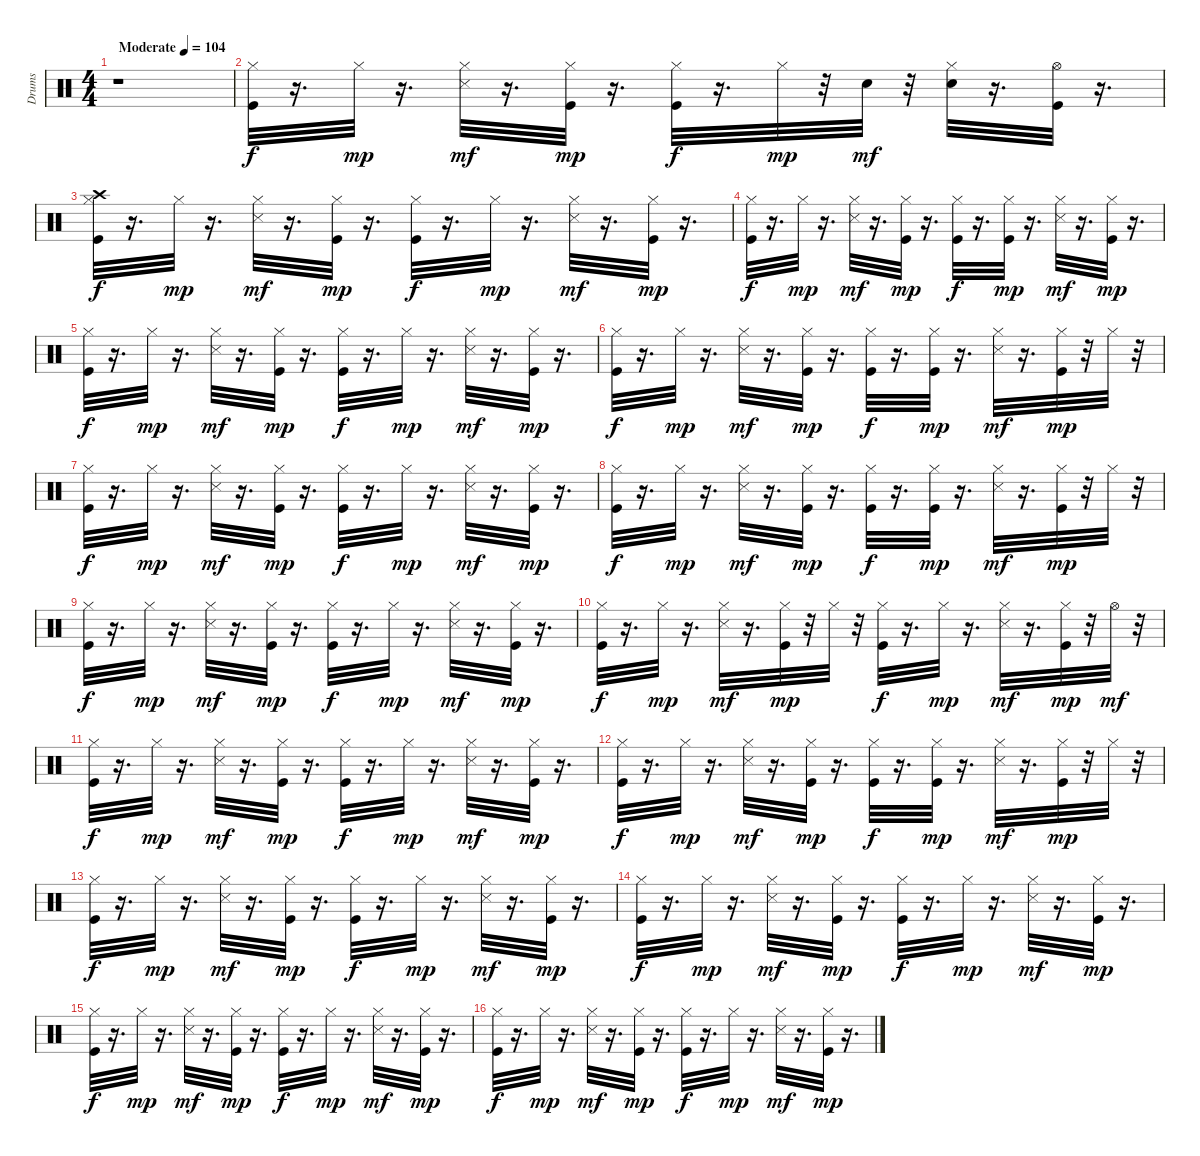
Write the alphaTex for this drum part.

\track ("Drums" "Drums") {instrument percussion}
\staff {score}
\articulation defaults
\ts (4 4)
\tempo (104 "Moderate")
\clef neutral
\ks c
r.1{dy f} |
("Kick (hit)" "Hi-Hat (closed)").32 r.16{d} "Hi-Hat (closed)".32{dy mp} r.16{d} ("Hi-Hat (closed)" "Snare (side stick) 3").32{dy mf} r.16{d} ("Kick (hit)" "Hi-Hat (closed)").32{dy mp} r.16{d} ("Kick (hit)" "Hi-Hat (closed)").32{dy f} r.16{d} "Hi-Hat (closed)".32{dy mp} r.32 "Snare (hit) 2".32{dy mf} r.32 ("Snare (hit) 2" "Hi-Hat (closed)").32 r.16{d} ("Kick (hit)" "Hi-Hat (open)").32 r.16{d} |
("Kick (hit)" "Hi-Hat (closed)" "Crash high (hit)").32{dy f} r.16{d} "Hi-Hat (closed)".32{dy mp} r.16{d} ("Hi-Hat (closed)" "Snare (side stick) 3").32{dy mf} r.16{d} ("Kick (hit)" "Hi-Hat (closed)").32{dy mp} r.16{d} ("Kick (hit)" "Hi-Hat (closed)").32{dy f} r.16{d} "Hi-Hat (closed)".32{dy mp} r.16{d} ("Hi-Hat (closed)" "Snare (side stick) 3").32{dy mf} r.16{d} ("Kick (hit)" "Hi-Hat (closed)").32{dy mp} r.16{d} |
("Kick (hit)" "Hi-Hat (closed)").32{dy f} r.16{d} "Hi-Hat (closed)".32{dy mp} r.16{d} ("Hi-Hat (closed)" "Snare (side stick) 3").32{dy mf} r.16{d} ("Kick (hit)" "Hi-Hat (closed)").32{dy mp} r.16{d} ("Kick (hit)" "Hi-Hat (closed)").32{dy f} r.16{d} ("Kick (hit)" "Hi-Hat (closed)").32{dy mp} r.16{d} ("Hi-Hat (closed)" "Snare (side stick) 3").32{dy mf} r.16{d} ("Kick (hit)" "Hi-Hat (closed)").32{dy mp} r.16{d} |
("Kick (hit)" "Hi-Hat (closed)").32{dy f} r.16{d} "Hi-Hat (closed)".32{dy mp} r.16{d} ("Hi-Hat (closed)" "Snare (side stick) 3").32{dy mf} r.16{d} ("Kick (hit)" "Hi-Hat (closed)").32{dy mp} r.16{d} ("Kick (hit)" "Hi-Hat (closed)").32{dy f} r.16{d} "Hi-Hat (closed)".32{dy mp} r.16{d} ("Hi-Hat (closed)" "Snare (side stick) 3").32{dy mf} r.16{d} ("Kick (hit)" "Hi-Hat (closed)").32{dy mp} r.16{d} |
("Kick (hit)" "Hi-Hat (closed)").32{dy f} r.16{d} "Hi-Hat (closed)".32{dy mp} r.16{d} ("Hi-Hat (closed)" "Snare (side stick) 3").32{dy mf} r.16{d} ("Kick (hit)" "Hi-Hat (closed)").32{dy mp} r.16{d} ("Kick (hit)" "Hi-Hat (closed)").32{dy f} r.16{d} ("Kick (hit)" "Hi-Hat (closed)").32{dy mp} r.16{d} ("Hi-Hat (closed)" "Snare (side stick) 3").32{dy mf} r.16{d} ("Kick (hit)" "Hi-Hat (closed)").32{dy mp} r.32 "Hi-Hat (closed)".32 r.32 |
("Kick (hit)" "Hi-Hat (closed)").32{dy f} r.16{d} "Hi-Hat (closed)".32{dy mp} r.16{d} ("Hi-Hat (closed)" "Snare (side stick) 3").32{dy mf} r.16{d} ("Kick (hit)" "Hi-Hat (closed)").32{dy mp} r.16{d} ("Kick (hit)" "Hi-Hat (closed)").32{dy f} r.16{d} "Hi-Hat (closed)".32{dy mp} r.16{d} ("Hi-Hat (closed)" "Snare (side stick) 3").32{dy mf} r.16{d} ("Kick (hit)" "Hi-Hat (closed)").32{dy mp} r.16{d} |
("Kick (hit)" "Hi-Hat (closed)").32{dy f} r.16{d} "Hi-Hat (closed)".32{dy mp} r.16{d} ("Hi-Hat (closed)" "Snare (side stick) 3").32{dy mf} r.16{d} ("Kick (hit)" "Hi-Hat (closed)").32{dy mp} r.16{d} ("Kick (hit)" "Hi-Hat (closed)").32{dy f} r.16{d} ("Kick (hit)" "Hi-Hat (closed)").32{dy mp} r.16{d} ("Hi-Hat (closed)" "Snare (side stick) 3").32{dy mf} r.16{d} ("Kick (hit)" "Hi-Hat (closed)").32{dy mp} r.32 "Hi-Hat (closed)".32 r.32 |
("Kick (hit)" "Hi-Hat (closed)").32{dy f} r.16{d} "Hi-Hat (closed)".32{dy mp} r.16{d} ("Hi-Hat (closed)" "Snare (side stick) 3").32{dy mf} r.16{d} ("Kick (hit)" "Hi-Hat (closed)").32{dy mp} r.16{d} ("Kick (hit)" "Hi-Hat (closed)").32{dy f} r.16{d} "Hi-Hat (closed)".32{dy mp} r.16{d} ("Hi-Hat (closed)" "Snare (side stick) 3").32{dy mf} r.16{d} ("Kick (hit)" "Hi-Hat (closed)").32{dy mp} r.16{d} |
("Kick (hit)" "Hi-Hat (closed)").32{dy f} r.16{d} "Hi-Hat (closed)".32{dy mp} r.16{d} ("Hi-Hat (closed)" "Snare (side stick) 3").32{dy mf} r.16{d} ("Kick (hit)" "Hi-Hat (closed)").32{dy mp} r.32 "Hi-Hat (closed)".32 r.32 ("Kick (hit)" "Hi-Hat (closed)").32{dy f} r.16{d} "Hi-Hat (closed)".32{dy mp} r.16{d} ("Hi-Hat (closed)" "Snare (side stick) 3").32{dy mf} r.16{d} ("Kick (hit)" "Hi-Hat (closed)").32{dy mp} r.32 "Hi-Hat (open)".32{dy mf} r.32 |
("Kick (hit)" "Hi-Hat (closed)").32{dy f} r.16{d} "Hi-Hat (closed)".32{dy mp} r.16{d} ("Hi-Hat (closed)" "Snare (side stick) 3").32{dy mf} r.16{d} ("Kick (hit)" "Hi-Hat (closed)").32{dy mp} r.16{d} ("Kick (hit)" "Hi-Hat (closed)").32{dy f} r.16{d} "Hi-Hat (closed)".32{dy mp} r.16{d} ("Hi-Hat (closed)" "Snare (side stick) 3").32{dy mf} r.16{d} ("Kick (hit)" "Hi-Hat (closed)").32{dy mp} r.16{d} |
("Kick (hit)" "Hi-Hat (closed)").32{dy f} r.16{d} "Hi-Hat (closed)".32{dy mp} r.16{d} ("Hi-Hat (closed)" "Snare (side stick) 3").32{dy mf} r.16{d} ("Kick (hit)" "Hi-Hat (closed)").32{dy mp} r.16{d} ("Kick (hit)" "Hi-Hat (closed)").32{dy f} r.16{d} ("Kick (hit)" "Hi-Hat (closed)").32{dy mp} r.16{d} ("Hi-Hat (closed)" "Snare (side stick) 3").32{dy mf} r.16{d} ("Kick (hit)" "Hi-Hat (closed)").32{dy mp} r.32 "Hi-Hat (closed)".32 r.32 |
("Kick (hit)" "Hi-Hat (closed)").32{dy f} r.16{d} "Hi-Hat (closed)".32{dy mp} r.16{d} ("Hi-Hat (closed)" "Snare (side stick) 3").32{dy mf} r.16{d} ("Kick (hit)" "Hi-Hat (closed)").32{dy mp} r.16{d} ("Kick (hit)" "Hi-Hat (closed)").32{dy f} r.16{d} "Hi-Hat (closed)".32{dy mp} r.16{d} ("Hi-Hat (closed)" "Snare (side stick) 3").32{dy mf} r.16{d} ("Kick (hit)" "Hi-Hat (closed)").32{dy mp} r.16{d} |
("Kick (hit)" "Hi-Hat (closed)").32{dy f} r.16{d} "Hi-Hat (closed)".32{dy mp} r.16{d} ("Hi-Hat (closed)" "Snare (side stick) 3").32{dy mf} r.16{d} ("Kick (hit)" "Hi-Hat (closed)").32{dy mp} r.16{d} ("Kick (hit)" "Hi-Hat (closed)").32{dy f} r.16{d} "Hi-Hat (closed)".32{dy mp} r.16{d} ("Hi-Hat (closed)" "Snare (side stick) 3").32{dy mf} r.16{d} ("Kick (hit)" "Hi-Hat (closed)").32{dy mp} r.16{d} |
("Kick (hit)" "Hi-Hat (closed)").32{dy f} r.16{d} "Hi-Hat (closed)".32{dy mp} r.16{d} ("Hi-Hat (closed)" "Snare (side stick) 3").32{dy mf} r.16{d} ("Kick (hit)" "Hi-Hat (closed)").32{dy mp} r.16{d} ("Kick (hit)" "Hi-Hat (closed)").32{dy f} r.16{d} "Hi-Hat (closed)".32{dy mp} r.16{d} ("Hi-Hat (closed)" "Snare (side stick) 3").32{dy mf} r.16{d} ("Kick (hit)" "Hi-Hat (closed)").32{dy mp} r.16{d} |
("Kick (hit)" "Hi-Hat (closed)").32{dy f} r.16{d} "Hi-Hat (closed)".32{dy mp} r.16{d} ("Hi-Hat (closed)" "Snare (side stick) 3").32{dy mf} r.16{d} ("Kick (hit)" "Hi-Hat (closed)").32{dy mp} r.16{d} ("Kick (hit)" "Hi-Hat (closed)").32{dy f} r.16{d} "Hi-Hat (closed)".32{dy mp} r.16{d} ("Hi-Hat (closed)" "Snare (side stick) 3").32{dy mf} r.16{d} ("Kick (hit)" "Hi-Hat (closed)").32{dy mp} r.16{d}
